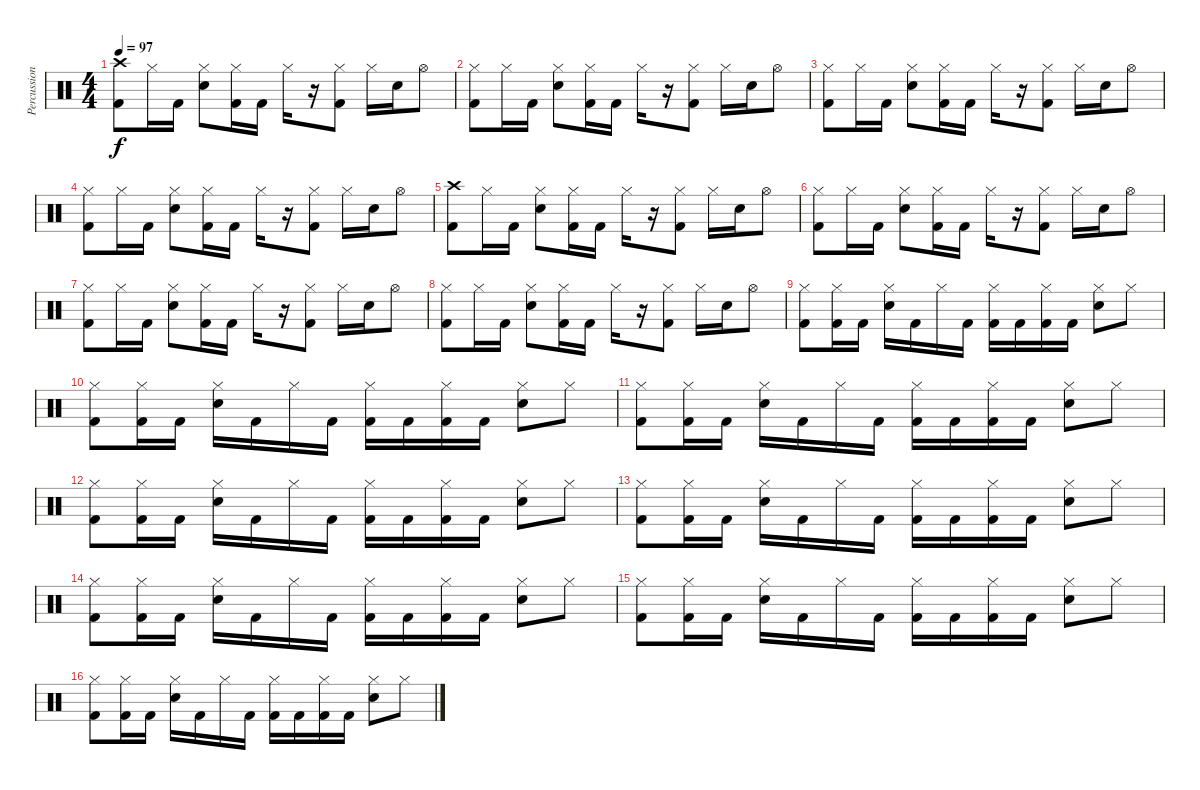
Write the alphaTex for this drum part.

\track ("Percussion" "Percussion") {instrument percussion}
\staff {score}
\articulation defaults
\ts (4 4)
\tempo 97
\clef neutral
\ks c
("Crash high (hit)" "Kick (hit) 2").8{dy f} "Hi-Hat (closed)".16 "Kick (hit) 2".16 ("Hi-Hat (closed)" "Snare (hit) 2").8 ("Hi-Hat (closed)" "Kick (hit) 2").16 "Kick (hit) 2".16 "Hi-Hat (closed)".16 r.16 ("Hi-Hat (closed)" "Kick (hit) 2").8 "Hi-Hat (closed)".16 "Snare (hit) 2".16 "Hi-Hat (open)".8 |
("Hi-Hat (closed)" "Kick (hit) 2").8 "Hi-Hat (closed)".16 "Kick (hit) 2".16 ("Hi-Hat (closed)" "Snare (hit) 2").8 ("Hi-Hat (closed)" "Kick (hit) 2").16 "Kick (hit) 2".16 "Hi-Hat (closed)".16 r.16 ("Hi-Hat (closed)" "Kick (hit) 2").8 "Hi-Hat (closed)".16 "Snare (hit) 2".16 "Hi-Hat (open)".8 |
("Hi-Hat (closed)" "Kick (hit) 2").8 "Hi-Hat (closed)".16 "Kick (hit) 2".16 ("Hi-Hat (closed)" "Snare (hit) 2").8 ("Hi-Hat (closed)" "Kick (hit) 2").16 "Kick (hit) 2".16 "Hi-Hat (closed)".16 r.16 ("Hi-Hat (closed)" "Kick (hit) 2").8 "Hi-Hat (closed)".16 "Snare (hit) 2".16 "Hi-Hat (open)".8 |
("Hi-Hat (closed)" "Kick (hit) 2").8 "Hi-Hat (closed)".16 "Kick (hit) 2".16 ("Hi-Hat (closed)" "Snare (hit) 2").8 ("Hi-Hat (closed)" "Kick (hit) 2").16 "Kick (hit) 2".16 "Hi-Hat (closed)".16 r.16 ("Hi-Hat (closed)" "Kick (hit) 2").8 "Hi-Hat (closed)".16 "Snare (hit) 2".16 "Hi-Hat (open)".8 |
("Crash high (hit)" "Kick (hit) 2").8 "Hi-Hat (closed)".16 "Kick (hit) 2".16 ("Hi-Hat (closed)" "Snare (hit) 2").8 ("Hi-Hat (closed)" "Kick (hit) 2").16 "Kick (hit) 2".16 "Hi-Hat (closed)".16 r.16 ("Hi-Hat (closed)" "Kick (hit) 2").8 "Hi-Hat (closed)".16 "Snare (hit) 2".16 "Hi-Hat (open)".8 |
("Hi-Hat (closed)" "Kick (hit) 2").8 "Hi-Hat (closed)".16 "Kick (hit) 2".16 ("Hi-Hat (closed)" "Snare (hit) 2").8 ("Hi-Hat (closed)" "Kick (hit) 2").16 "Kick (hit) 2".16 "Hi-Hat (closed)".16 r.16 ("Hi-Hat (closed)" "Kick (hit) 2").8 "Hi-Hat (closed)".16 "Snare (hit) 2".16 "Hi-Hat (open)".8 |
("Hi-Hat (closed)" "Kick (hit) 2").8 "Hi-Hat (closed)".16 "Kick (hit) 2".16 ("Hi-Hat (closed)" "Snare (hit) 2").8 ("Hi-Hat (closed)" "Kick (hit) 2").16 "Kick (hit) 2".16 "Hi-Hat (closed)".16 r.16 ("Hi-Hat (closed)" "Kick (hit) 2").8 "Hi-Hat (closed)".16 "Snare (hit) 2".16 "Hi-Hat (open)".8 |
("Hi-Hat (closed)" "Kick (hit) 2").8 "Hi-Hat (closed)".16 "Kick (hit) 2".16 ("Hi-Hat (closed)" "Snare (hit) 2").8 ("Hi-Hat (closed)" "Kick (hit) 2").16 "Kick (hit) 2".16 "Hi-Hat (closed)".16 r.16 ("Hi-Hat (closed)" "Kick (hit) 2").8 "Hi-Hat (closed)".16 "Snare (hit) 2".16 "Hi-Hat (open)".8 |
("Hi-Hat (closed)" "Kick (hit) 2").8 ("Hi-Hat (closed)" "Kick (hit) 2").16 "Kick (hit) 2".16 ("Hi-Hat (closed)" "Snare (hit) 2").16 "Kick (hit) 2".16 "Hi-Hat (closed)".16 "Kick (hit) 2".16 ("Hi-Hat (closed)" "Kick (hit) 2").16 "Kick (hit) 2".16 ("Hi-Hat (closed)" "Kick (hit) 2").16 "Kick (hit) 2".16 ("Hi-Hat (closed)" "Snare (hit) 2").8 "Hi-Hat (closed)".8 |
("Hi-Hat (closed)" "Kick (hit) 2").8 ("Hi-Hat (closed)" "Kick (hit) 2").16 "Kick (hit) 2".16 ("Hi-Hat (closed)" "Snare (hit) 2").16 "Kick (hit) 2".16 "Hi-Hat (closed)".16 "Kick (hit) 2".16 ("Hi-Hat (closed)" "Kick (hit) 2").16 "Kick (hit) 2".16 ("Hi-Hat (closed)" "Kick (hit) 2").16 "Kick (hit) 2".16 ("Hi-Hat (closed)" "Snare (hit) 2").8 "Hi-Hat (closed)".8 |
("Hi-Hat (closed)" "Kick (hit) 2").8 ("Hi-Hat (closed)" "Kick (hit) 2").16 "Kick (hit) 2".16 ("Hi-Hat (closed)" "Snare (hit) 2").16 "Kick (hit) 2".16 "Hi-Hat (closed)".16 "Kick (hit) 2".16 ("Hi-Hat (closed)" "Kick (hit) 2").16 "Kick (hit) 2".16 ("Hi-Hat (closed)" "Kick (hit) 2").16 "Kick (hit) 2".16 ("Hi-Hat (closed)" "Snare (hit) 2").8 "Hi-Hat (closed)".8 |
("Hi-Hat (closed)" "Kick (hit) 2").8 ("Hi-Hat (closed)" "Kick (hit) 2").16 "Kick (hit) 2".16 ("Hi-Hat (closed)" "Snare (hit) 2").16 "Kick (hit) 2".16 "Hi-Hat (closed)".16 "Kick (hit) 2".16 ("Hi-Hat (closed)" "Kick (hit) 2").16 "Kick (hit) 2".16 ("Hi-Hat (closed)" "Kick (hit) 2").16 "Kick (hit) 2".16 ("Hi-Hat (closed)" "Snare (hit) 2").8 "Hi-Hat (closed)".8 |
("Hi-Hat (closed)" "Kick (hit) 2").8 ("Hi-Hat (closed)" "Kick (hit) 2").16 "Kick (hit) 2".16 ("Hi-Hat (closed)" "Snare (hit) 2").16 "Kick (hit) 2".16 "Hi-Hat (closed)".16 "Kick (hit) 2".16 ("Hi-Hat (closed)" "Kick (hit) 2").16 "Kick (hit) 2".16 ("Hi-Hat (closed)" "Kick (hit) 2").16 "Kick (hit) 2".16 ("Hi-Hat (closed)" "Snare (hit) 2").8 "Hi-Hat (closed)".8 |
("Hi-Hat (closed)" "Kick (hit) 2").8 ("Hi-Hat (closed)" "Kick (hit) 2").16 "Kick (hit) 2".16 ("Hi-Hat (closed)" "Snare (hit) 2").16 "Kick (hit) 2".16 "Hi-Hat (closed)".16 "Kick (hit) 2".16 ("Hi-Hat (closed)" "Kick (hit) 2").16 "Kick (hit) 2".16 ("Hi-Hat (closed)" "Kick (hit) 2").16 "Kick (hit) 2".16 ("Hi-Hat (closed)" "Snare (hit) 2").8 "Hi-Hat (closed)".8 |
("Hi-Hat (closed)" "Kick (hit) 2").8 ("Hi-Hat (closed)" "Kick (hit) 2").16 "Kick (hit) 2".16 ("Hi-Hat (closed)" "Snare (hit) 2").16 "Kick (hit) 2".16 "Hi-Hat (closed)".16 "Kick (hit) 2".16 ("Hi-Hat (closed)" "Kick (hit) 2").16 "Kick (hit) 2".16 ("Hi-Hat (closed)" "Kick (hit) 2").16 "Kick (hit) 2".16 ("Hi-Hat (closed)" "Snare (hit) 2").8 "Hi-Hat (closed)".8 |
("Hi-Hat (closed)" "Kick (hit) 2").8 ("Hi-Hat (closed)" "Kick (hit) 2").16 "Kick (hit) 2".16 ("Hi-Hat (closed)" "Snare (hit) 2").16 "Kick (hit) 2".16 "Hi-Hat (closed)".16 "Kick (hit) 2".16 ("Hi-Hat (closed)" "Kick (hit) 2").16 "Kick (hit) 2".16 ("Hi-Hat (closed)" "Kick (hit) 2").16 "Kick (hit) 2".16 ("Hi-Hat (closed)" "Snare (hit) 2").8 "Hi-Hat (closed)".8
